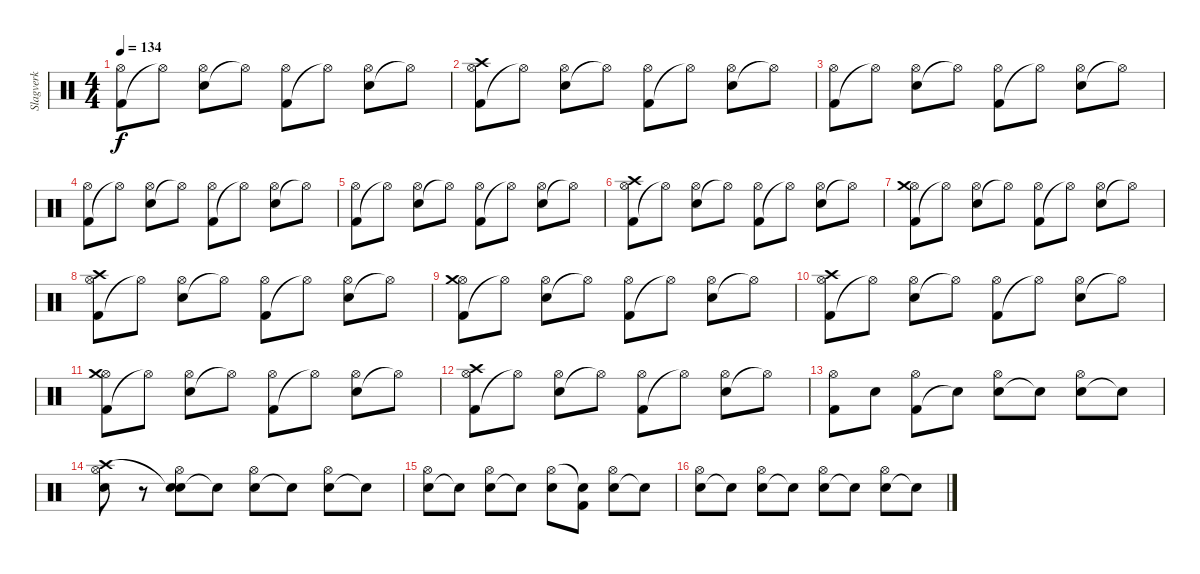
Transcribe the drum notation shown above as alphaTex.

\track ("Slagverk" "Slagverk") {instrument percussion}
\staff {score}
\articulation defaults
\ts (4 4)
\tempo 134
\clef neutral
\ks c
("Kick (hit) 2" "Hi-Hat (open)").8{dy f} "Hi-Hat (open)"{t}.8 ("Electric Snare (hit)" "Hi-Hat (open)").8 "Hi-Hat (open)"{t}.8 ("Kick (hit) 2" "Hi-Hat (open)").8 "Hi-Hat (open)"{t}.8 ("Electric Snare (hit)" "Hi-Hat (open)").8 "Hi-Hat (open)"{t}.8 |
("Kick (hit) 2" "Hi-Hat (open)" "Crash high (hit)").8 "Hi-Hat (open)"{t}.8 ("Electric Snare (hit)" "Hi-Hat (open)").8 "Hi-Hat (open)"{t}.8 ("Kick (hit) 2" "Hi-Hat (open)").8 "Hi-Hat (open)"{t}.8 ("Electric Snare (hit)" "Hi-Hat (open)").8 "Hi-Hat (open)"{t}.8 |
("Kick (hit) 2" "Hi-Hat (open)").8 "Hi-Hat (open)"{t}.8 ("Electric Snare (hit)" "Hi-Hat (open)").8 "Hi-Hat (open)"{t}.8 ("Kick (hit) 2" "Hi-Hat (open)").8 "Hi-Hat (open)"{t}.8 ("Electric Snare (hit)" "Hi-Hat (open)").8 "Hi-Hat (open)"{t}.8 |
("Kick (hit) 2" "Hi-Hat (open)").8 "Hi-Hat (open)"{t}.8 ("Electric Snare (hit)" "Hi-Hat (open)").8 "Hi-Hat (open)"{t}.8 ("Kick (hit) 2" "Hi-Hat (open)").8 "Hi-Hat (open)"{t}.8 ("Electric Snare (hit)" "Hi-Hat (open)").8 "Hi-Hat (open)"{t}.8 |
("Kick (hit) 2" "Hi-Hat (open)").8 "Hi-Hat (open)"{t}.8 ("Electric Snare (hit)" "Hi-Hat (open)").8 "Hi-Hat (open)"{t}.8 ("Kick (hit) 2" "Hi-Hat (open)").8 "Hi-Hat (open)"{t}.8 ("Electric Snare (hit)" "Hi-Hat (open)").8 "Hi-Hat (open)"{t}.8 |
("Kick (hit) 2" "Hi-Hat (open)" "Crash high (hit)").8 "Hi-Hat (open)"{t}.8 ("Electric Snare (hit)" "Hi-Hat (open)").8 "Hi-Hat (open)"{t}.8 ("Kick (hit) 2" "Hi-Hat (open)").8 "Hi-Hat (open)"{t}.8 ("Electric Snare (hit)" "Hi-Hat (open)").8 "Hi-Hat (open)"{t}.8 |
("Kick (hit) 2" "Hi-Hat (open)" "Crash medium (hit)").8 "Hi-Hat (open)"{t}.8 ("Electric Snare (hit)" "Hi-Hat (open)").8 "Hi-Hat (open)"{t}.8 ("Kick (hit) 2" "Hi-Hat (open)").8 "Hi-Hat (open)"{t}.8 ("Electric Snare (hit)" "Hi-Hat (open)").8 "Hi-Hat (open)"{t}.8 |
("Kick (hit) 2" "Hi-Hat (open)" "Crash high (hit)").8 "Hi-Hat (open)"{t}.8 ("Electric Snare (hit)" "Hi-Hat (open)").8 "Hi-Hat (open)"{t}.8 ("Kick (hit) 2" "Hi-Hat (open)").8 "Hi-Hat (open)"{t}.8 ("Electric Snare (hit)" "Hi-Hat (open)").8 "Hi-Hat (open)"{t}.8 |
("Kick (hit) 2" "Hi-Hat (open)" "Crash medium (hit)").8 "Hi-Hat (open)"{t}.8 ("Electric Snare (hit)" "Hi-Hat (open)").8 "Hi-Hat (open)"{t}.8 ("Kick (hit) 2" "Hi-Hat (open)").8 "Hi-Hat (open)"{t}.8 ("Electric Snare (hit)" "Hi-Hat (open)").8 "Hi-Hat (open)"{t}.8 |
("Kick (hit) 2" "Hi-Hat (open)" "Crash high (hit)").8 "Hi-Hat (open)"{t}.8 ("Electric Snare (hit)" "Hi-Hat (open)").8 "Hi-Hat (open)"{t}.8 ("Kick (hit) 2" "Hi-Hat (open)").8 "Hi-Hat (open)"{t}.8 ("Electric Snare (hit)" "Hi-Hat (open)").8 "Hi-Hat (open)"{t}.8 |
("Kick (hit) 2" "Hi-Hat (open)" "Crash medium (hit)").8 "Hi-Hat (open)"{t}.8 ("Electric Snare (hit)" "Hi-Hat (open)").8 "Hi-Hat (open)"{t}.8 ("Kick (hit) 2" "Hi-Hat (open)").8 "Hi-Hat (open)"{t}.8 ("Electric Snare (hit)" "Hi-Hat (open)").8 "Hi-Hat (open)"{t}.8 |
("Kick (hit) 2" "Hi-Hat (open)" "Crash high (hit)").8 "Hi-Hat (open)"{t}.8 ("Electric Snare (hit)" "Hi-Hat (open)").8 "Hi-Hat (open)"{t}.8 ("Kick (hit) 2" "Hi-Hat (open)").8 "Hi-Hat (open)"{t}.8 ("Electric Snare (hit)" "Hi-Hat (open)").8 "Hi-Hat (open)"{t}.8 |
("Kick (hit) 2" "Hi-Hat (open)").8 "Electric Snare (hit)".8 ("Kick (hit) 2" "Hi-Hat (open)").8 "Snare (hit)"{t}.8 ("Electric Snare (hit)" "Hi-Hat (open)").8 "Snare (hit)"{t}.8 ("Electric Snare (hit)" "Hi-Hat (open)").8 "Snare (hit)"{t}.8 |
("Electric Snare (hit)" "Hi-Hat (open)" "Crash high (hit)").8 r.8 ("Electric Snare (hit)" "Hi-Hat (open)" "Snare (hit)"{t}).8 "Snare (hit)"{t}.8 ("Electric Snare (hit)" "Hi-Hat (open)").8 "Snare (hit)"{t}.8 ("Electric Snare (hit)" "Hi-Hat (open)").8 "Snare (hit)"{t}.8 |
("Electric Snare (hit)" "Hi-Hat (open)").8 "Snare (hit)"{t}.8 ("Electric Snare (hit)" "Hi-Hat (open)").8 "Snare (hit)"{t}.8 ("Electric Snare (hit)" "Hi-Hat (open)").8 ("Kick (hit) 2" "Snare (hit)"{t}).8 ("Electric Snare (hit)" "Hi-Hat (open)").8 "Snare (hit)"{t}.8 |
("Electric Snare (hit)" "Hi-Hat (open)").8 "Snare (hit)"{t}.8 ("Electric Snare (hit)" "Hi-Hat (open)").8 "Snare (hit)"{t}.8 ("Electric Snare (hit)" "Hi-Hat (open)").8 "Snare (hit)"{t}.8 ("Electric Snare (hit)" "Hi-Hat (open)").8 "Snare (hit)"{t}.8
